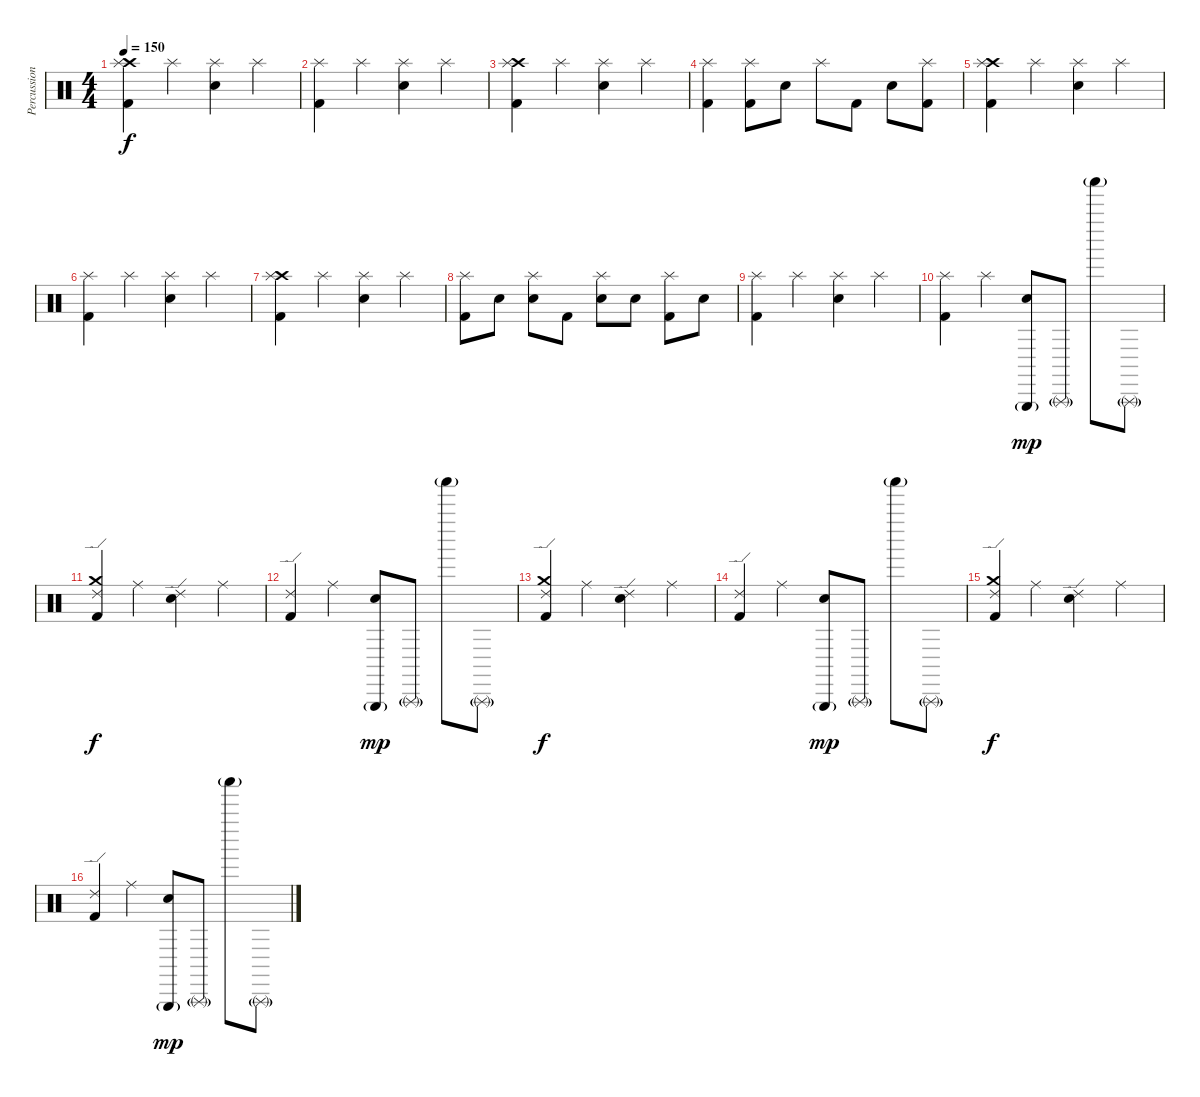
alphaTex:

\track ("Percussion" "Percussion") {instrument percussion}
\staff {score}
\articulation defaults
\ts (4 4)
\tempo 150
\clef neutral
\ks c
("Crash high (hit)" "Splash (hit)" "Kick (hit) 2").4{dy f} "Splash (hit)".4 ("Splash (hit)" "Snare (hit) 2").4 "Splash (hit)".4 |
("Splash (hit)" "Kick (hit) 2").4 "Splash (hit)".4 ("Splash (hit)" "Snare (hit) 2").4 "Splash (hit)".4 |
("Crash high (hit)" "Splash (hit)" "Kick (hit) 2").4 "Splash (hit)".4 ("Splash (hit)" "Snare (hit) 2").4 "Splash (hit)".4 |
("Splash (hit)" "Kick (hit) 2").4 ("Splash (hit)" "Kick (hit) 2").8 "Snare (hit) 2".8 "Splash (hit)".8 "Kick (hit) 2".8 "Snare (hit) 2".8 ("Splash (hit)" "Kick (hit) 2").8 |
("Crash high (hit)" "Splash (hit)" "Kick (hit) 2").4 "Splash (hit)".4 ("Splash (hit)" "Snare (hit) 2").4 "Splash (hit)".4 |
("Splash (hit)" "Kick (hit) 2").4 "Splash (hit)".4 ("Splash (hit)" "Snare (hit) 2").4 "Splash (hit)".4 |
("Crash high (hit)" "Splash (hit)" "Kick (hit) 2").4 "Splash (hit)".4 ("Splash (hit)" "Snare (hit) 2").4 "Splash (hit)".4 |
("Splash (hit)" "Kick (hit) 2").8 "Snare (hit) 2".8 ("Splash (hit)" "Snare (hit) 2").8 "Kick (hit) 2".8 ("Splash (hit)" "Snare (hit) 2").8 "Snare (hit) 2".8 ("Splash (hit)" "Kick (hit) 2").8 "Snare (hit) 2".8 |
("Splash (hit)" "Kick (hit) 2").4{volume 7} "Splash (hit)".4 ("Splash (hit)" "Snare (hit) 2").4 "Splash (hit)".4 |
("Splash (hit)" "Kick (hit) 2").4 "Splash (hit)".4 ("Triangle (hit)"{g} "Snare (hit) 2").8{dy mp} "Triangle (rnute)"{g}.8 "Shaker (hit)"{g}.8 "Triangle (rnute)"{g}.8 |
("Crash medium (hit)" "Ride (edge) 2" "Kick (hit) 2").4{dy f} "Ride (middle)".4 ("Ride (edge) 2" "Snare (hit) 2").4 "Ride (middle)".4 |
("Ride (edge) 2" "Kick (hit) 2").4 "Ride (middle)".4 ("Triangle (hit)"{g} "Snare (hit) 2").8{dy mp} "Triangle (rnute)"{g}.8 "Shaker (hit)"{g}.8 "Triangle (rnute)"{g}.8 |
("Crash medium (hit)" "Ride (edge) 2" "Kick (hit) 2").4{dy f} "Ride (middle)".4 ("Ride (edge) 2" "Snare (hit) 2").4 "Ride (middle)".4 |
("Ride (edge) 2" "Kick (hit) 2").4 "Ride (middle)".4 ("Triangle (hit)"{g} "Snare (hit) 2").8{dy mp} "Triangle (rnute)"{g}.8 "Shaker (hit)"{g}.8 "Triangle (rnute)"{g}.8 |
("Crash medium (hit)" "Ride (edge) 2" "Kick (hit) 2").4{dy f} "Ride (middle)".4 ("Ride (edge) 2" "Snare (hit) 2").4 "Ride (middle)".4 |
("Ride (edge) 2" "Kick (hit) 2").4 "Ride (middle)".4 ("Triangle (hit)"{g} "Snare (hit) 2").8{dy mp} "Triangle (rnute)"{g}.8 "Shaker (hit)"{g}.8 "Triangle (rnute)"{g}.8
